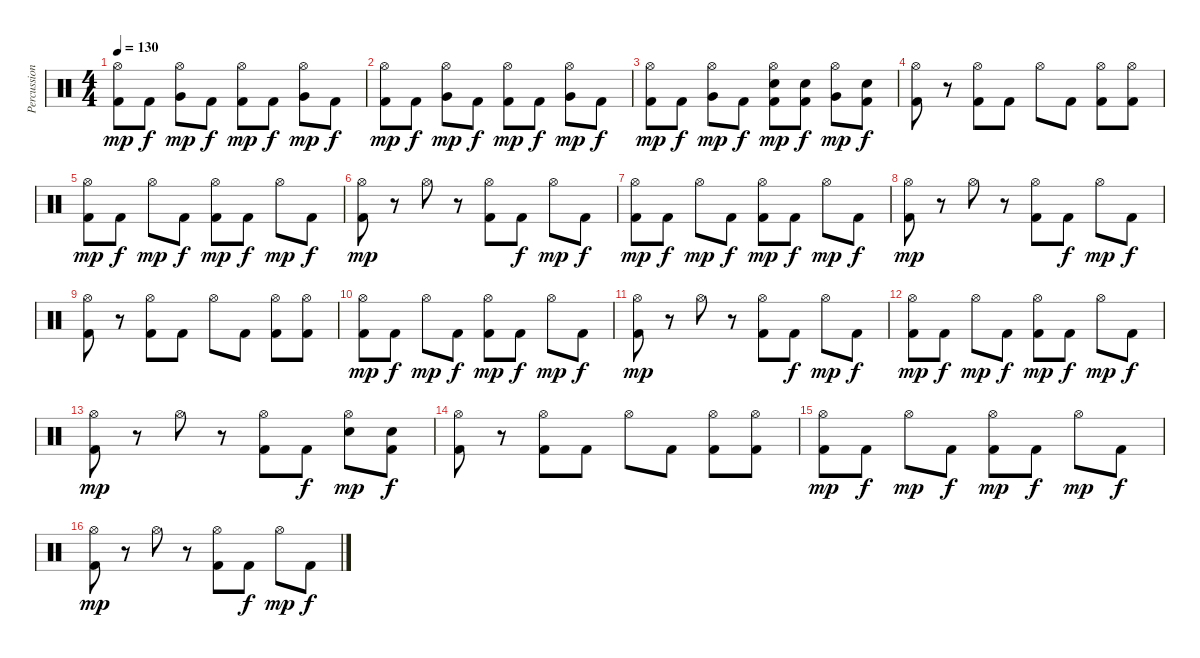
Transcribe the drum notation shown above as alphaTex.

\track ("Percussions" "Percussion") {instrument percussion}
\staff {score}
\articulation defaults
\ts (4 4)
\tempo 130
\clef neutral
\ks c
("Hi-Hat (open)" "Kick (hit) 2").8{dy mp} "Kick (hit) 2".8{dy f} ("Hi-Hat (open)" "Very Low Tom (hit)").8{dy mp} "Kick (hit) 2".8{dy f} ("Hi-Hat (open)" "Kick (hit) 2").8{dy mp} "Kick (hit) 2".8{dy f} ("Hi-Hat (open)" "Very Low Tom (hit)").8{dy mp} "Kick (hit) 2".8{dy f} |
("Hi-Hat (open)" "Kick (hit) 2").8{dy mp} "Kick (hit) 2".8{dy f} ("Hi-Hat (open)" "Very Low Tom (hit)").8{dy mp} "Kick (hit) 2".8{dy f} ("Hi-Hat (open)" "Kick (hit) 2").8{dy mp} "Kick (hit) 2".8{dy f} ("Hi-Hat (open)" "Very Low Tom (hit)").8{dy mp} "Kick (hit) 2".8{dy f} |
("Hi-Hat (open)" "Kick (hit) 2").8{dy mp} "Kick (hit) 2".8{dy f} ("Hi-Hat (open)" "Very Low Tom (hit)").8{dy mp} "Kick (hit) 2".8{dy f} ("Hi-Hat (open)" "Snare (hit) 2" "Kick (hit) 2").8{dy mp} ("Snare (hit) 2" "Kick (hit) 2").8{dy f} ("Hi-Hat (open)" "Very Low Tom (hit)").8{dy mp} ("Snare (hit) 2" "Kick (hit) 2").8{dy f} |
("Hi-Hat (open)" "Kick (hit) 2").8 r.8 ("Hi-Hat (open)" "Kick (hit) 2").8 "Kick (hit) 2".8 "Hi-Hat (open)".8 "Kick (hit) 2".8 ("Hi-Hat (open)" "Kick (hit) 2").8 ("Hi-Hat (open)" "Kick (hit) 2").8 |
("Hi-Hat (open)" "Kick (hit) 2").8{dy mp} "Kick (hit) 2".8{dy f} "Hi-Hat (open)".8{dy mp} "Kick (hit) 2".8{dy f} ("Hi-Hat (open)" "Kick (hit) 2").8{dy mp} "Kick (hit) 2".8{dy f} "Hi-Hat (open)".8{dy mp} "Kick (hit) 2".8{dy f} |
("Hi-Hat (open)" "Kick (hit) 2").8{dy mp} r.8 "Hi-Hat (open)".8 r.8 ("Hi-Hat (open)" "Kick (hit) 2").8 "Kick (hit) 2".8{dy f} "Hi-Hat (open)".8{dy mp} "Kick (hit) 2".8{dy f} |
("Hi-Hat (open)" "Kick (hit) 2").8{dy mp} "Kick (hit) 2".8{dy f} "Hi-Hat (open)".8{dy mp} "Kick (hit) 2".8{dy f} ("Hi-Hat (open)" "Kick (hit) 2").8{dy mp} "Kick (hit) 2".8{dy f} "Hi-Hat (open)".8{dy mp} "Kick (hit) 2".8{dy f} |
("Hi-Hat (open)" "Kick (hit) 2").8{dy mp} r.8 "Hi-Hat (open)".8 r.8 ("Hi-Hat (open)" "Kick (hit) 2").8 "Kick (hit) 2".8{dy f} "Hi-Hat (open)".8{dy mp} "Kick (hit) 2".8{dy f} |
("Hi-Hat (open)" "Kick (hit) 2").8 r.8 ("Hi-Hat (open)" "Kick (hit) 2").8 "Kick (hit) 2".8 "Hi-Hat (open)".8 "Kick (hit) 2".8 ("Hi-Hat (open)" "Kick (hit) 2").8 ("Hi-Hat (open)" "Kick (hit) 2").8 |
("Hi-Hat (open)" "Kick (hit) 2").8{dy mp} "Kick (hit) 2".8{dy f} "Hi-Hat (open)".8{dy mp} "Kick (hit) 2".8{dy f} ("Hi-Hat (open)" "Kick (hit) 2").8{dy mp} "Kick (hit) 2".8{dy f} "Hi-Hat (open)".8{dy mp} "Kick (hit) 2".8{dy f} |
("Hi-Hat (open)" "Kick (hit) 2").8{dy mp} r.8 "Hi-Hat (open)".8 r.8 ("Hi-Hat (open)" "Kick (hit) 2").8 "Kick (hit) 2".8{dy f} "Hi-Hat (open)".8{dy mp} "Kick (hit) 2".8{dy f} |
("Hi-Hat (open)" "Kick (hit) 2").8{dy mp} "Kick (hit) 2".8{dy f} "Hi-Hat (open)".8{dy mp} "Kick (hit) 2".8{dy f} ("Hi-Hat (open)" "Kick (hit) 2").8{dy mp} "Kick (hit) 2".8{dy f} "Hi-Hat (open)".8{dy mp} "Kick (hit) 2".8{dy f} |
("Hi-Hat (open)" "Kick (hit) 2").8{dy mp} r.8 "Hi-Hat (open)".8 r.8 ("Hi-Hat (open)" "Kick (hit) 2").8 "Kick (hit) 2".8{dy f} ("Hi-Hat (open)" "Snare (hit) 2").8{dy mp} ("Snare (hit) 2" "Kick (hit) 2").8{dy f} |
("Hi-Hat (open)" "Kick (hit) 2").8 r.8 ("Hi-Hat (open)" "Kick (hit) 2").8 "Kick (hit) 2".8 "Hi-Hat (open)".8 "Kick (hit) 2".8 ("Hi-Hat (open)" "Kick (hit) 2").8 ("Hi-Hat (open)" "Kick (hit) 2").8 |
("Hi-Hat (open)" "Kick (hit) 2").8{dy mp} "Kick (hit) 2".8{dy f} "Hi-Hat (open)".8{dy mp} "Kick (hit) 2".8{dy f} ("Hi-Hat (open)" "Kick (hit) 2").8{dy mp} "Kick (hit) 2".8{dy f} "Hi-Hat (open)".8{dy mp} "Kick (hit) 2".8{dy f} |
("Hi-Hat (open)" "Kick (hit) 2").8{dy mp} r.8 "Hi-Hat (open)".8 r.8 ("Hi-Hat (open)" "Kick (hit) 2").8 "Kick (hit) 2".8{dy f} "Hi-Hat (open)".8{dy mp} "Kick (hit) 2".8{dy f}
